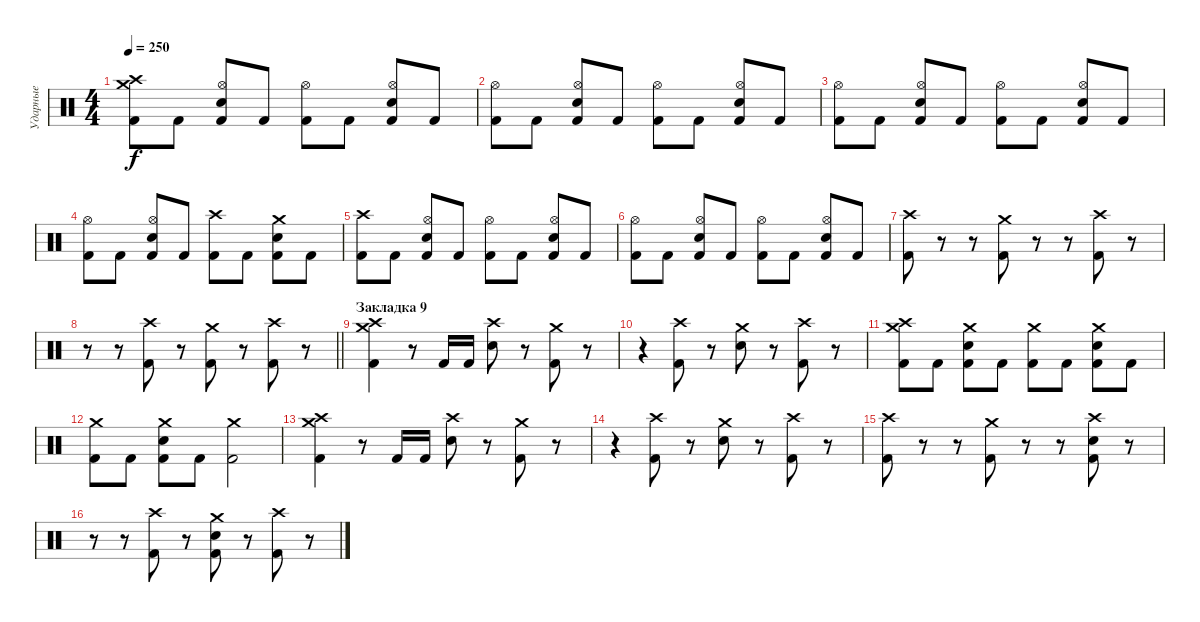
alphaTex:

\track ("Ударные" "Ударные") {instrument percussion}
\staff {score}
\articulation defaults
\ts (4 4)
\tempo 250
\clef neutral
\ks c
("Crash medium (hit)" "Crash high (hit)" "Kick (hit) 2").8{dy f} "Kick (hit) 2".8 ("Hi-Hat (open)" "Electric Snare (hit)" "Kick (hit) 2").8 "Kick (hit) 2".8 ("Hi-Hat (open)" "Kick (hit) 2").8 "Kick (hit) 2".8 ("Hi-Hat (open)" "Electric Snare (hit)" "Kick (hit) 2").8 "Kick (hit) 2".8 |
("Hi-Hat (open)" "Kick (hit) 2").8 "Kick (hit) 2".8 ("Hi-Hat (open)" "Electric Snare (hit)" "Kick (hit) 2").8 "Kick (hit) 2".8 ("Hi-Hat (open)" "Kick (hit) 2").8 "Kick (hit) 2".8 ("Hi-Hat (open)" "Electric Snare (hit)" "Kick (hit) 2").8 "Kick (hit) 2".8 |
("Hi-Hat (open)" "Kick (hit) 2").8 "Kick (hit) 2".8 ("Hi-Hat (open)" "Electric Snare (hit)" "Kick (hit) 2").8 "Kick (hit) 2".8 ("Hi-Hat (open)" "Kick (hit) 2").8 "Kick (hit) 2".8 ("Hi-Hat (open)" "Electric Snare (hit)" "Kick (hit) 2").8 "Kick (hit) 2".8 |
("Hi-Hat (open)" "Kick (hit) 2").8 "Kick (hit) 2".8 ("Hi-Hat (open)" "Electric Snare (hit)" "Kick (hit) 2").8 "Kick (hit) 2".8 ("Crash high (hit)" "Kick (hit) 2").8 "Kick (hit) 2".8 ("Crash medium (hit)" "Electric Snare (hit)" "Kick (hit) 2").8 "Kick (hit) 2".8 |
("Crash high (hit)" "Kick (hit) 2").8 "Kick (hit) 2".8 ("Hi-Hat (open)" "Electric Snare (hit)" "Kick (hit) 2").8 "Kick (hit) 2".8 ("Hi-Hat (open)" "Kick (hit) 2").8 "Kick (hit) 2".8 ("Hi-Hat (open)" "Electric Snare (hit)" "Kick (hit) 2").8 "Kick (hit) 2".8 |
("Hi-Hat (open)" "Kick (hit) 2").8 "Kick (hit) 2".8 ("Hi-Hat (open)" "Electric Snare (hit)" "Kick (hit) 2").8 "Kick (hit) 2".8 ("Hi-Hat (open)" "Kick (hit) 2").8 "Kick (hit) 2".8 ("Hi-Hat (open)" "Electric Snare (hit)" "Kick (hit) 2").8 "Kick (hit) 2".8 |
("Crash high (hit)" "Kick (hit) 2").8 r.8 r.8 ("Crash medium (hit)" "Kick (hit) 2").8 r.8 r.8 ("Crash high (hit)" "Kick (hit) 2").8 r.8 |
\barLineRight lightlight
r.8 r.8 ("Crash high (hit)" "Kick (hit) 2").8 r.8 ("Crash medium (hit)" "Kick (hit) 2").8 r.8 ("Crash high (hit)" "Kick (hit) 2").8 r.8 |
\section ("" "Закладка 9")
("Crash medium (hit)" "Crash high (hit)" "Kick (hit) 2").4 r.8 "Kick (hit) 2".16 "Kick (hit) 2".16 ("Crash high (hit)" "Electric Snare (hit)").8 r.8 ("Crash medium (hit)" "Kick (hit) 2").8 r.8 |
r.4 ("Crash high (hit)" "Kick (hit) 2").8 r.8 ("Crash medium (hit)" "Electric Snare (hit)").8 r.8 ("Crash high (hit)" "Kick (hit) 2").8 r.8 |
("Crash medium (hit)" "Crash high (hit)" "Kick (hit) 2").8 "Kick (hit) 2".8 ("Crash medium (hit)" "Electric Snare (hit)" "Kick (hit) 2").8 "Kick (hit) 2".8 ("Crash medium (hit)" "Kick (hit) 2").8 "Kick (hit) 2".8 ("Crash medium (hit)" "Electric Snare (hit)" "Kick (hit) 2").8 "Kick (hit) 2".8 |
("Crash medium (hit)" "Kick (hit) 2").8 "Kick (hit) 2".8 ("Crash medium (hit)" "Electric Snare (hit)" "Kick (hit) 2").8 "Kick (hit) 2".8 ("Crash medium (hit)" "Kick (hit) 2").2 |
("Crash medium (hit)" "Crash high (hit)" "Kick (hit) 2").4 r.8 "Kick (hit) 2".16 "Kick (hit) 2".16 ("Crash high (hit)" "Electric Snare (hit)").8 r.8 ("Crash medium (hit)" "Kick (hit) 2").8 r.8 |
r.4 ("Crash high (hit)" "Kick (hit) 2").8 r.8 ("Crash medium (hit)" "Electric Snare (hit)").8 r.8 ("Crash high (hit)" "Kick (hit) 2").8 r.8 |
("Crash high (hit)" "Kick (hit) 2").8 r.8 r.8 ("Crash medium (hit)" "Kick (hit) 2").8 r.8 r.8 ("Crash high (hit)" "Electric Snare (hit)" "Kick (hit) 2").8 r.8 |
r.8 r.8 ("Crash high (hit)" "Kick (hit) 2").8 r.8 ("Crash medium (hit)" "Electric Snare (hit)" "Kick (hit) 2").8 r.8 ("Crash high (hit)" "Kick (hit) 2").8 r.8
